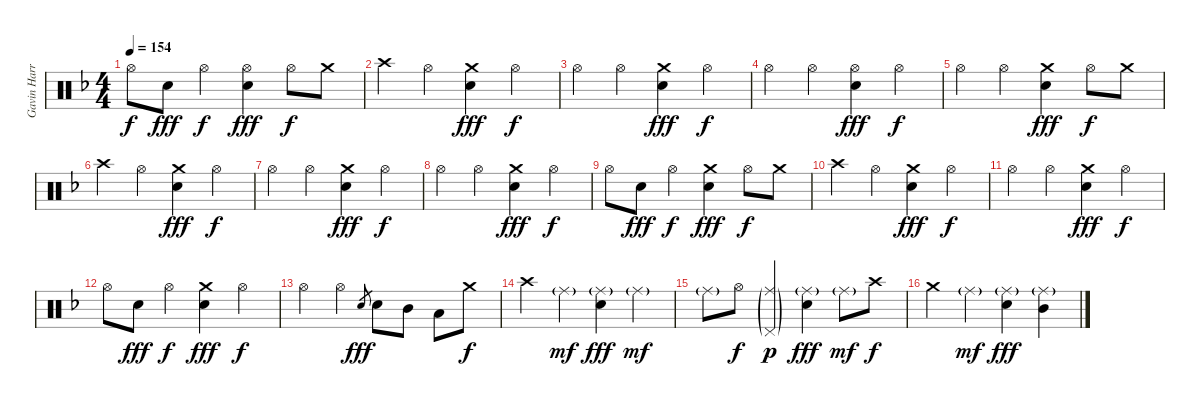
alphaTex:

\track ("Gavin Harrison Drums" "Gavin Harr") {instrument percussion}
\staff {score}
\articulation defaults
\ts (4 4)
\tempo 154
\clef neutral
\ks dminor "Hi-Hat (open)".8{dy f} "Electric Snare (hit)".8{dy fff} "Hi-Hat (open)".4{dy f}
("Hi-Hat (open)" "Electric Snare (hit)").4{dy fff} "Hi-Hat (open)".8{dy f} "Crash medium (hit)".8 |
"Crash high (hit)".4 "Hi-Hat (open)".4 ("Crash medium (hit)" "Electric Snare (hit)").4{dy fff} "Hi-Hat (open)".4{dy f} |
"Hi-Hat (open)".4 "Hi-Hat (open)".4 ("Crash medium (hit)" "Electric Snare (hit)").4{dy fff} "Hi-Hat (open)".4{dy f} |
"Hi-Hat (open)".4 "Hi-Hat (open)".4 ("Hi-Hat (open)" "Electric Snare (hit)").4{dy fff} "Hi-Hat (open)".4{dy f} |
"Hi-Hat (open)".4 "Hi-Hat (open)".4 ("Crash medium (hit)" "Electric Snare (hit)").4{dy fff} "Hi-Hat (open)".8{dy f} "Crash medium (hit)".8 |
"Crash high (hit)".4 "Hi-Hat (open)".4 ("Crash medium (hit)" "Electric Snare (hit)").4{dy fff} "Hi-Hat (open)".4{dy f} |
"Hi-Hat (open)".4 "Hi-Hat (open)".4 ("Crash medium (hit)" "Electric Snare (hit)").4{dy fff} "Hi-Hat (open)".4{dy f} |
"Hi-Hat (open)".4 "Hi-Hat (open)".4 ("Crash medium (hit)" "Electric Snare (hit)").4{dy fff} "Hi-Hat (open)".4{dy f} |
"Hi-Hat (open)".8 "Electric Snare (hit)".8{dy fff} "Hi-Hat (open)".4{dy f} ("Crash medium (hit)" "Electric Snare (hit)").4{dy fff} "Hi-Hat (open)".8{dy f} "Crash medium (hit)".8 |
"Crash high (hit)".4 "Hi-Hat (open)".4 ("Crash medium (hit)" "Electric Snare (hit)").4{dy fff} "Hi-Hat (open)".4{dy f} |
"Hi-Hat (open)".4 "Hi-Hat (open)".4 ("Crash medium (hit)" "Electric Snare (hit)").4{dy fff} "Hi-Hat (open)".4{dy f} |
"Hi-Hat (open)".8 "Electric Snare (hit)".8{dy fff} "Hi-Hat (open)".4{dy f} ("Crash medium (hit)" "Electric Snare (hit)").4{dy fff} "Hi-Hat (open)".4{dy f} |
"Hi-Hat (open)".4 "Hi-Hat (open)".4 "Electric Snare (hit)".8{gr dy fff} "Electric Snare (hit)".8 "Mid Tom (hit)".8 "Low Tom (hit)".8 "Crash medium (hit)".8{dy f} |
"Crash high (hit)".4 "Ride (middle)"{g}.4{dy mf} ("Ride (middle)"{g} "Electric Snare (hit)").4{dy fff} "Ride (middle)"{g}.4{dy mf} |
"Ride (middle)"{g}.8 "Hi-Hat (open)".8{dy f} ("Ride (middle)"{g} "Pedal Hi-Hat (hit)"{g}).4{dy p} ("Ride (middle)"{g} "Electric Snare (hit)").4{dy fff} "Ride (middle)"{g}.8{dy mf} "Crash high (hit)".8{dy f} |
"Crash medium (hit)".4 "Ride (middle)"{g}.4{dy mf} ("Ride (middle)"{g} "Electric Snare (hit)").4{dy fff} ("Ride (middle)"{g} "Mid Tom (hit)").4
